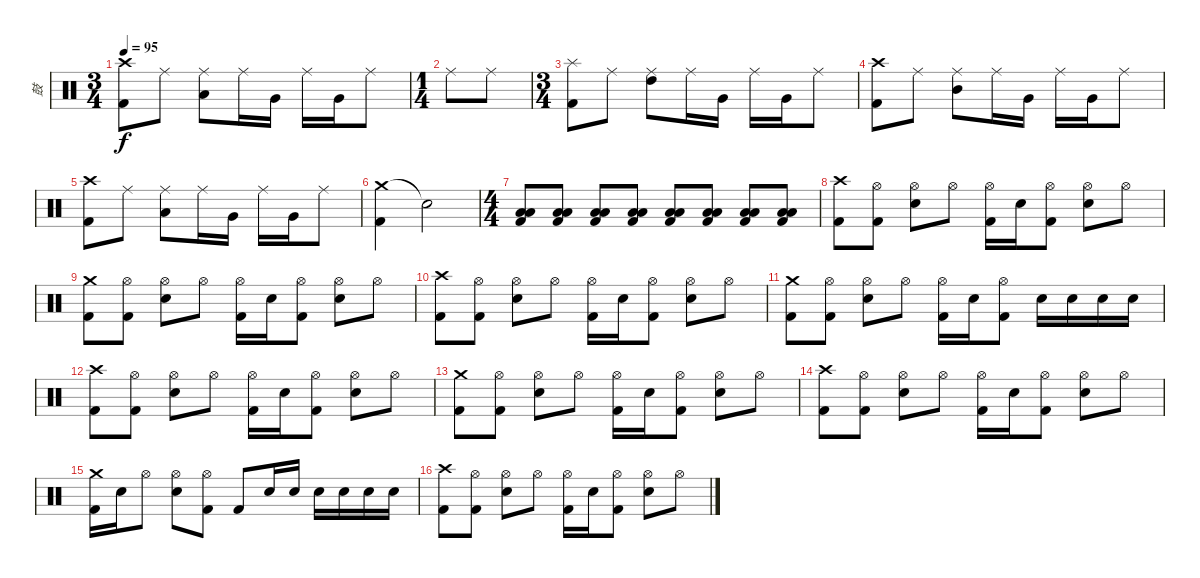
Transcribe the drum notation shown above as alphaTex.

\track ("鼓" "鼓") {instrument percussion}
\staff {score}
\articulation defaults
\ts (3 4)
\tempo 95
\clef neutral
\ks c
("Crash high (hit)" "Kick (hit) 2").8{dy f} "Ride (middle)".8 ("Ride (middle)" "Low Tom (hit)").8 "Ride (middle)".16 "Very Low Tom (hit)".16 "Ride (middle)".16 "Very Low Tom (hit)".16 "Ride (middle)".8 |
\ts (1 4)
"Ride (middle)".8 "Ride (middle)".8 |
\ts (3 4)
("Splash (hit)" "Kick (hit) 2").8 "Ride (middle)".8 ("Ride (middle)" "High Tom (hit)").8 "Ride (middle)".16 "Very Low Tom (hit)".16 "Ride (middle)".16 "Very Low Tom (hit)".16 "Ride (middle)".8 |
("Crash high (hit)" "Kick (hit) 2").8 "Ride (middle)".8 ("Ride (middle)" "Mid Tom (hit)").8 "Ride (middle)".16 "Very Low Tom (hit)".16 "Ride (middle)".16 "Very Low Tom (hit)".16 "Ride (middle)".8 |
("Crash high (hit)" "Kick (hit) 2").8 "Ride (middle)".8 ("Ride (middle)" "Low Tom (hit)").8 "Ride (middle)".16 "Very Low Tom (hit)".16 "Ride (middle)".16 "Very Low Tom (hit)".16 "Ride (middle)".8 |
("Crash medium (hit)" "Kick (hit) 2").4 "Snare (hit)"{t}.2 |
\ts (4 4)
("Low Tom (hit)" "Low Floor Tom (hit)" "Kick (hit) 2").8 ("Low Tom (hit)" "Low Floor Tom (hit)" "Kick (hit) 2").8 ("Low Tom (hit)" "Low Floor Tom (hit)" "Kick (hit) 2").8 ("Low Tom (hit)" "Low Floor Tom (hit)" "Kick (hit) 2").8 ("Low Tom (hit)" "Low Floor Tom (hit)" "Kick (hit) 2").8 ("Low Tom (hit)" "Low Floor Tom (hit)" "Kick (hit) 2").8 ("Low Tom (hit)" "Low Floor Tom (hit)" "Kick (hit) 2").8 ("Low Tom (hit)" "Low Floor Tom (hit)" "Kick (hit) 2").8 |
("Crash high (hit)" "Kick (hit) 2").8 ("Hi-Hat (open)" "Kick (hit) 2").8 ("Hi-Hat (open)" "Snare (hit) 2").8 "Hi-Hat (open)".8 ("Hi-Hat (open)" "Kick (hit) 2").16 "Snare (hit) 2".16 ("Hi-Hat (open)" "Kick (hit) 2").8 ("Hi-Hat (open)" "Snare (hit) 2").8 "Hi-Hat (open)".8 |
("Crash medium (hit)" "Kick (hit) 2").8 ("Hi-Hat (open)" "Kick (hit) 2").8 ("Hi-Hat (open)" "Snare (hit) 2").8 "Hi-Hat (open)".8 ("Hi-Hat (open)" "Kick (hit) 2").16 "Snare (hit) 2".16 ("Hi-Hat (open)" "Kick (hit) 2").8 ("Hi-Hat (open)" "Snare (hit) 2").8 "Hi-Hat (open)".8 |
("Crash high (hit)" "Kick (hit) 2").8 ("Hi-Hat (open)" "Kick (hit) 2").8 ("Hi-Hat (open)" "Snare (hit) 2").8 "Hi-Hat (open)".8 ("Hi-Hat (open)" "Kick (hit) 2").16 "Snare (hit) 2".16 ("Hi-Hat (open)" "Kick (hit) 2").8 ("Hi-Hat (open)" "Snare (hit) 2").8 "Hi-Hat (open)".8 |
("Crash medium (hit)" "Kick (hit) 2").8 ("Hi-Hat (open)" "Kick (hit) 2").8 ("Hi-Hat (open)" "Snare (hit) 2").8 "Hi-Hat (open)".8 ("Hi-Hat (open)" "Kick (hit) 2").16 "Snare (hit) 2".16 ("Hi-Hat (open)" "Kick (hit) 2").8 "Snare (hit) 2".16 "Snare (hit) 2".16 "Snare (hit) 2".16 "Snare (hit) 2".16 |
("Crash high (hit)" "Kick (hit) 2").8 ("Hi-Hat (open)" "Kick (hit) 2").8 ("Hi-Hat (open)" "Snare (hit) 2").8 "Hi-Hat (open)".8 ("Hi-Hat (open)" "Kick (hit) 2").16 "Snare (hit) 2".16 ("Hi-Hat (open)" "Kick (hit) 2").8 ("Hi-Hat (open)" "Snare (hit) 2").8 "Hi-Hat (open)".8 |
("Crash medium (hit)" "Kick (hit) 2").8 ("Hi-Hat (open)" "Kick (hit) 2").8 ("Hi-Hat (open)" "Snare (hit) 2").8 "Hi-Hat (open)".8 ("Hi-Hat (open)" "Kick (hit) 2").16 "Snare (hit) 2".16 ("Hi-Hat (open)" "Kick (hit) 2").8 ("Hi-Hat (open)" "Snare (hit) 2").8 "Hi-Hat (open)".8 |
("Crash high (hit)" "Kick (hit) 2").8 ("Hi-Hat (open)" "Kick (hit) 2").8 ("Hi-Hat (open)" "Snare (hit) 2").8 "Hi-Hat (open)".8 ("Hi-Hat (open)" "Kick (hit) 2").16 "Snare (hit) 2".16 ("Hi-Hat (open)" "Kick (hit) 2").8 ("Hi-Hat (open)" "Snare (hit) 2").8 "Hi-Hat (open)".8 |
("Crash medium (hit)" "Kick (hit) 2").16 "Snare (hit) 2".16 "Hi-Hat (open)".8 ("Hi-Hat (open)" "Snare (hit) 2").8 ("Hi-Hat (open)" "Kick (hit) 2").8 "Kick (hit) 2".8 "Snare (hit) 2".16 "Snare (hit) 2".16 "Snare (hit) 2".16 "Snare (hit) 2".16 "Snare (hit) 2".16 "Snare (hit) 2".16 |
("Crash high (hit)" "Kick (hit) 2").8 ("Hi-Hat (open)" "Kick (hit) 2").8 ("Hi-Hat (open)" "Snare (hit) 2").8 "Hi-Hat (open)".8 ("Hi-Hat (open)" "Kick (hit) 2").16 "Snare (hit) 2".16 ("Hi-Hat (open)" "Kick (hit) 2").8 ("Hi-Hat (open)" "Snare (hit) 2").8 "Hi-Hat (open)".8
